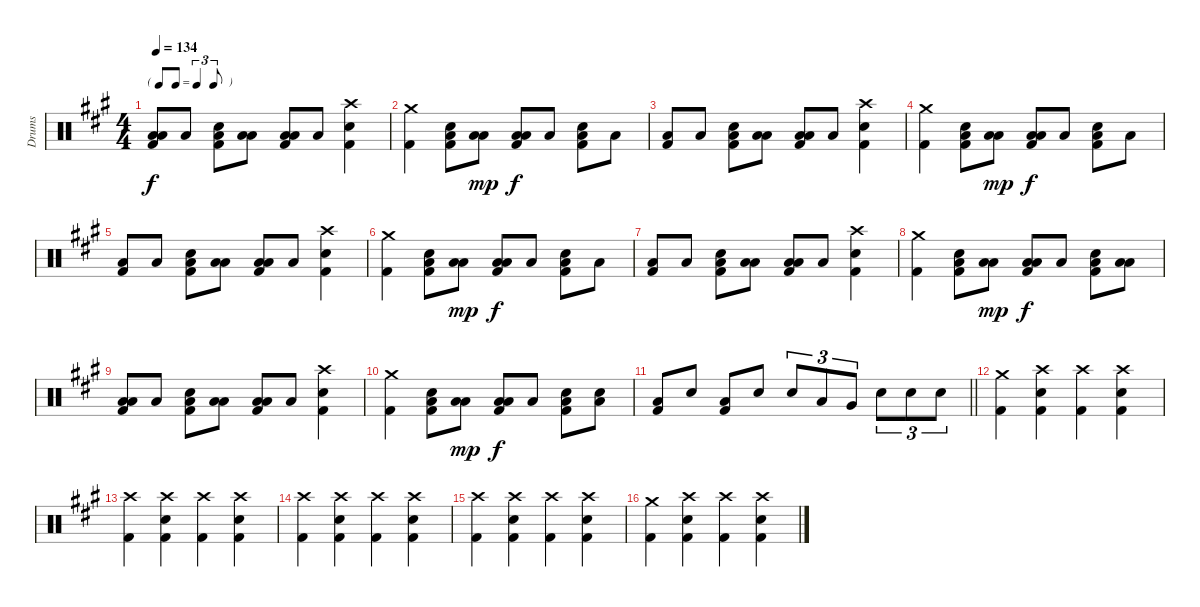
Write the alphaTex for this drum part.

\track ("Drums" "Drums") {instrument percussion}
\staff {score}
\articulation defaults
\ts (4 4)
\tf triplet8th
\tempo 134
\clef neutral
\ks f#minor
("Low Tom (hit)" "Low Floor Tom (hit)" "Kick (hit) 2").8{dy f} "Low Floor Tom (hit)".8 ("Electric Snare (hit)" "Low Floor Tom (hit)" "Kick (hit) 2").8 ("Low Tom (hit)" "Low Floor Tom (hit)").8 ("Low Tom (hit)" "Low Floor Tom (hit)" "Kick (hit) 2").8 "Low Floor Tom (hit)".8 ("Crash high (hit)" "Electric Snare (hit)" "Kick (hit) 2").4 |
("Crash medium (hit)" "Kick (hit) 2").4 ("Electric Snare (hit)" "Low Floor Tom (hit)" "Kick (hit) 2").8 ("Low Tom (hit)" "Low Floor Tom (hit)").8{dy mp} ("Low Tom (hit)" "Low Floor Tom (hit)" "Kick (hit) 2").8{dy f} "Low Floor Tom (hit)".8 ("Electric Snare (hit)" "Low Floor Tom (hit)" "Kick (hit) 2").8 "Low Floor Tom (hit)".8 |
("Low Floor Tom (hit)" "Kick (hit) 2").8 "Low Floor Tom (hit)".8 ("Electric Snare (hit)" "Low Floor Tom (hit)" "Kick (hit) 2").8 ("Low Tom (hit)" "Low Floor Tom (hit)").8 ("Low Tom (hit)" "Low Floor Tom (hit)" "Kick (hit) 2").8 "Low Floor Tom (hit)".8 ("Crash high (hit)" "Electric Snare (hit)" "Kick (hit) 2").4 |
("Crash medium (hit)" "Kick (hit) 2").4 ("Electric Snare (hit)" "Low Floor Tom (hit)" "Kick (hit) 2").8 ("Low Tom (hit)" "Low Floor Tom (hit)").8{dy mp} ("Low Tom (hit)" "Low Floor Tom (hit)" "Kick (hit) 2").8{dy f} "Low Floor Tom (hit)".8 ("Electric Snare (hit)" "Low Floor Tom (hit)" "Kick (hit) 2").8 "Low Floor Tom (hit)".8 |
("Low Floor Tom (hit)" "Kick (hit) 2").8 "Low Floor Tom (hit)".8 ("Electric Snare (hit)" "Low Floor Tom (hit)" "Kick (hit) 2").8 ("Low Tom (hit)" "Low Floor Tom (hit)").8 ("Low Tom (hit)" "Low Floor Tom (hit)" "Kick (hit) 2").8 "Low Floor Tom (hit)".8 ("Crash high (hit)" "Electric Snare (hit)" "Kick (hit) 2").4 |
("Crash medium (hit)" "Kick (hit) 2").4 ("Electric Snare (hit)" "Low Floor Tom (hit)" "Kick (hit) 2").8 ("Low Tom (hit)" "Low Floor Tom (hit)").8{dy mp} ("Low Tom (hit)" "Low Floor Tom (hit)" "Kick (hit) 2").8{dy f} "Low Floor Tom (hit)".8 ("Electric Snare (hit)" "Low Floor Tom (hit)" "Kick (hit) 2").8 "Low Floor Tom (hit)".8 |
("Low Floor Tom (hit)" "Kick (hit) 2").8 "Low Floor Tom (hit)".8 ("Electric Snare (hit)" "Low Floor Tom (hit)" "Kick (hit) 2").8 ("Low Tom (hit)" "Low Floor Tom (hit)").8 ("Low Tom (hit)" "Low Floor Tom (hit)" "Kick (hit) 2").8 "Low Floor Tom (hit)".8 ("Crash high (hit)" "Electric Snare (hit)" "Kick (hit) 2").4 |
("Crash medium (hit)" "Kick (hit) 2").4 ("Electric Snare (hit)" "Low Floor Tom (hit)" "Kick (hit) 2").8 ("Low Tom (hit)" "Low Floor Tom (hit)").8{dy mp} ("Low Tom (hit)" "Low Floor Tom (hit)" "Kick (hit) 2").8{dy f} "Low Floor Tom (hit)".8 ("Electric Snare (hit)" "Low Floor Tom (hit)" "Kick (hit) 2").8 ("Low Tom (hit)" "Low Floor Tom (hit)").8 |
("Low Tom (hit)" "Low Floor Tom (hit)" "Kick (hit) 2").8 "Low Floor Tom (hit)".8 ("Electric Snare (hit)" "Low Floor Tom (hit)" "Kick (hit) 2").8 ("Low Tom (hit)" "Low Floor Tom (hit)").8 ("Low Tom (hit)" "Low Floor Tom (hit)" "Kick (hit) 2").8 "Low Floor Tom (hit)".8 ("Crash high (hit)" "Electric Snare (hit)" "Kick (hit) 2").4 |
("Crash medium (hit)" "Kick (hit) 2").4 ("Electric Snare (hit)" "Low Floor Tom (hit)" "Kick (hit) 2").8 ("Low Tom (hit)" "Low Floor Tom (hit)").8{dy mp} ("Low Tom (hit)" "Low Floor Tom (hit)" "Kick (hit) 2").8{dy f} "Low Floor Tom (hit)".8 ("Electric Snare (hit)" "Low Floor Tom (hit)" "Kick (hit) 2").8 ("Electric Snare (hit)" "Low Floor Tom (hit)").8 |
\barLineRight lightlight
("Low Floor Tom (hit)" "Kick (hit) 2").8 "Electric Snare (hit)".8 ("Low Floor Tom (hit)" "Kick (hit) 2").8 "Electric Snare (hit)".8 "Electric Snare (hit)".8{tu (3 2)} "Low Tom (hit)".8{tu (3 2)} "Very Low Tom (hit)".8{tu (3 2)} "Electric Snare (hit)".8{tu (3 2)} "Electric Snare (hit)".8{tu (3 2)} "Electric Snare (hit)".8{tu (3 2)} |
("Crash medium (hit)" "Kick (hit) 2").4 ("Crash high (hit)" "Electric Snare (hit)" "Kick (hit) 2").4 ("Crash high (hit)" "Kick (hit) 2").4 ("Crash high (hit)" "Electric Snare (hit)" "Kick (hit) 2").4 |
("Crash high (hit)" "Kick (hit) 2").4 ("Crash high (hit)" "Electric Snare (hit)" "Kick (hit) 2").4 ("Crash high (hit)" "Kick (hit) 2").4 ("Crash high (hit)" "Electric Snare (hit)" "Kick (hit) 2").4 |
("Crash high (hit)" "Kick (hit) 2").4 ("Crash high (hit)" "Electric Snare (hit)" "Kick (hit) 2").4 ("Crash high (hit)" "Kick (hit) 2").4 ("Crash high (hit)" "Electric Snare (hit)" "Kick (hit) 2").4 |
("Crash high (hit)" "Kick (hit) 2").4 ("Crash high (hit)" "Electric Snare (hit)" "Kick (hit) 2").4 ("Crash high (hit)" "Kick (hit) 2").4 ("Crash high (hit)" "Electric Snare (hit)" "Kick (hit) 2").4 |
("Crash medium (hit)" "Kick (hit) 2").4 ("Crash high (hit)" "Electric Snare (hit)" "Kick (hit) 2").4 ("Crash high (hit)" "Kick (hit) 2").4 ("Crash high (hit)" "Electric Snare (hit)" "Kick (hit) 2").4
